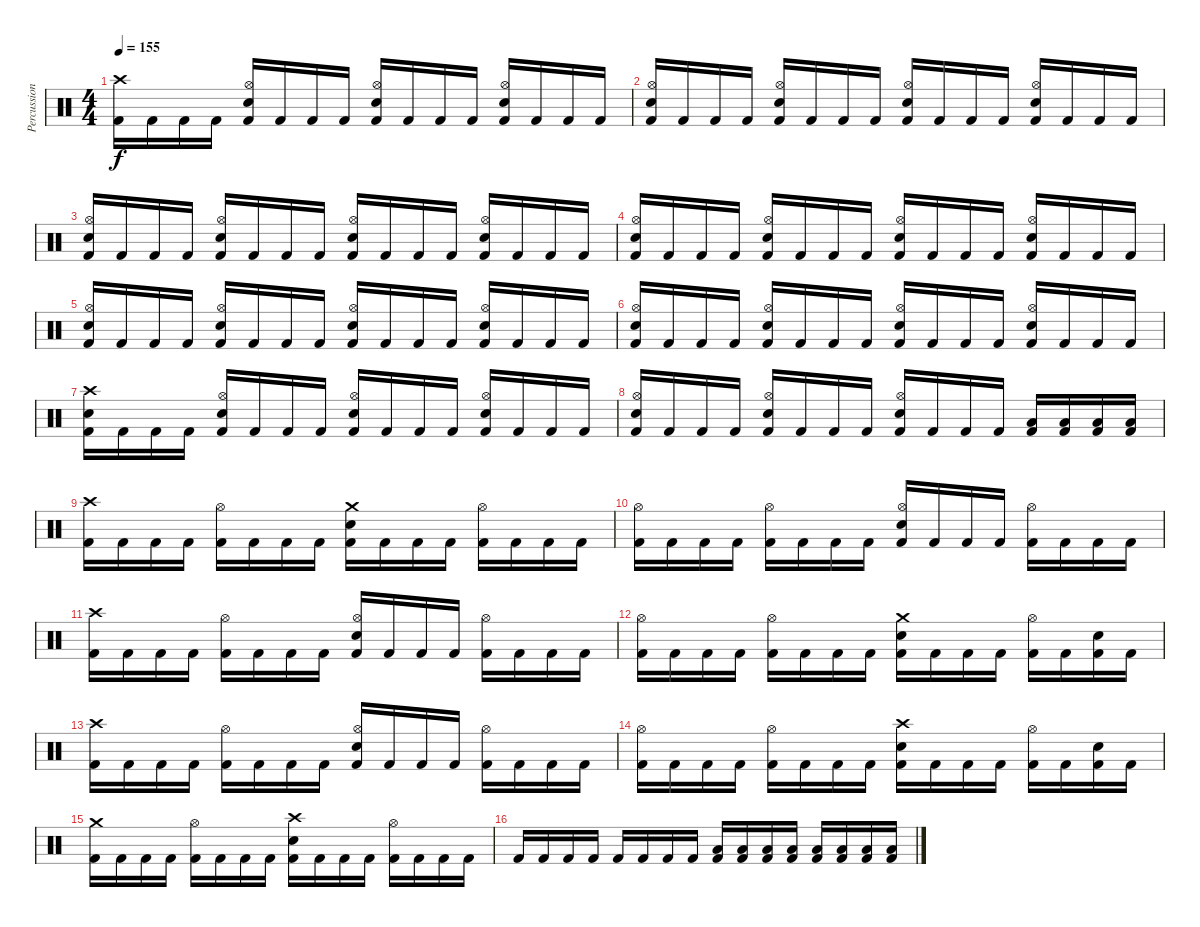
\track ("Percussion" "Percussion") {instrument percussion}
\staff {score}
\articulation defaults
\ts (4 4)
\tempo 155
\clef neutral
\ks c
("Crash high (hit)" "Kick (hit) 2").16{dy f} "Kick (hit) 2".16 "Kick (hit) 2".16 "Kick (hit) 2".16 ("Hi-Hat (open)" "Snare (hit) 2" "Kick (hit) 2").16 "Kick (hit) 2".16 "Kick (hit) 2".16 "Kick (hit) 2".16 ("Hi-Hat (open)" "Snare (hit) 2" "Kick (hit) 2").16 "Kick (hit) 2".16 "Kick (hit) 2".16 "Kick (hit) 2".16 ("Hi-Hat (open)" "Snare (hit) 2" "Kick (hit) 2").16 "Kick (hit) 2".16 "Kick (hit) 2".16 "Kick (hit) 2".16 |
("Hi-Hat (open)" "Snare (hit) 2" "Kick (hit) 2").16 "Kick (hit) 2".16 "Kick (hit) 2".16 "Kick (hit) 2".16 ("Hi-Hat (open)" "Snare (hit) 2" "Kick (hit) 2").16 "Kick (hit) 2".16 "Kick (hit) 2".16 "Kick (hit) 2".16 ("Hi-Hat (open)" "Snare (hit) 2" "Kick (hit) 2").16 "Kick (hit) 2".16 "Kick (hit) 2".16 "Kick (hit) 2".16 ("Hi-Hat (open)" "Snare (hit) 2" "Kick (hit) 2").16 "Kick (hit) 2".16 "Kick (hit) 2".16 "Kick (hit) 2".16 |
("Hi-Hat (open)" "Snare (hit) 2" "Kick (hit) 2").16 "Kick (hit) 2".16 "Kick (hit) 2".16 "Kick (hit) 2".16 ("Hi-Hat (open)" "Snare (hit) 2" "Kick (hit) 2").16 "Kick (hit) 2".16 "Kick (hit) 2".16 "Kick (hit) 2".16 ("Hi-Hat (open)" "Snare (hit) 2" "Kick (hit) 2").16 "Kick (hit) 2".16 "Kick (hit) 2".16 "Kick (hit) 2".16 ("Hi-Hat (open)" "Snare (hit) 2" "Kick (hit) 2").16 "Kick (hit) 2".16 "Kick (hit) 2".16 "Kick (hit) 2".16 |
("Hi-Hat (open)" "Snare (hit) 2" "Kick (hit) 2").16 "Kick (hit) 2".16 "Kick (hit) 2".16 "Kick (hit) 2".16 ("Hi-Hat (open)" "Snare (hit) 2" "Kick (hit) 2").16 "Kick (hit) 2".16 "Kick (hit) 2".16 "Kick (hit) 2".16 ("Hi-Hat (open)" "Snare (hit) 2" "Kick (hit) 2").16 "Kick (hit) 2".16 "Kick (hit) 2".16 "Kick (hit) 2".16 ("Hi-Hat (open)" "Snare (hit) 2" "Kick (hit) 2").16 "Kick (hit) 2".16 "Kick (hit) 2".16 "Kick (hit) 2".16 |
("Hi-Hat (open)" "Snare (hit) 2" "Kick (hit) 2").16 "Kick (hit) 2".16 "Kick (hit) 2".16 "Kick (hit) 2".16 ("Hi-Hat (open)" "Snare (hit) 2" "Kick (hit) 2").16 "Kick (hit) 2".16 "Kick (hit) 2".16 "Kick (hit) 2".16 ("Hi-Hat (open)" "Snare (hit) 2" "Kick (hit) 2").16 "Kick (hit) 2".16 "Kick (hit) 2".16 "Kick (hit) 2".16 ("Hi-Hat (open)" "Snare (hit) 2" "Kick (hit) 2").16 "Kick (hit) 2".16 "Kick (hit) 2".16 "Kick (hit) 2".16 |
("Hi-Hat (open)" "Snare (hit) 2" "Kick (hit) 2").16 "Kick (hit) 2".16 "Kick (hit) 2".16 "Kick (hit) 2".16 ("Hi-Hat (open)" "Snare (hit) 2" "Kick (hit) 2").16 "Kick (hit) 2".16 "Kick (hit) 2".16 "Kick (hit) 2".16 ("Hi-Hat (open)" "Snare (hit) 2" "Kick (hit) 2").16 "Kick (hit) 2".16 "Kick (hit) 2".16 "Kick (hit) 2".16 ("Hi-Hat (open)" "Snare (hit) 2" "Kick (hit) 2").16 "Kick (hit) 2".16 "Kick (hit) 2".16 "Kick (hit) 2".16 |
("Crash high (hit)" "Snare (hit) 2" "Kick (hit) 2").16 "Kick (hit) 2".16 "Kick (hit) 2".16 "Kick (hit) 2".16 ("Hi-Hat (open)" "Snare (hit) 2" "Kick (hit) 2").16 "Kick (hit) 2".16 "Kick (hit) 2".16 "Kick (hit) 2".16 ("Hi-Hat (open)" "Snare (hit) 2" "Kick (hit) 2").16 "Kick (hit) 2".16 "Kick (hit) 2".16 "Kick (hit) 2".16 ("Hi-Hat (open)" "Snare (hit) 2" "Kick (hit) 2").16 "Kick (hit) 2".16 "Kick (hit) 2".16 "Kick (hit) 2".16 |
("Hi-Hat (open)" "Snare (hit) 2" "Kick (hit) 2").16 "Kick (hit) 2".16 "Kick (hit) 2".16 "Kick (hit) 2".16 ("Hi-Hat (open)" "Snare (hit) 2" "Kick (hit) 2").16 "Kick (hit) 2".16 "Kick (hit) 2".16 "Kick (hit) 2".16 ("Hi-Hat (open)" "Snare (hit) 2" "Kick (hit) 2").16 "Kick (hit) 2".16 "Kick (hit) 2".16 "Kick (hit) 2".16 ("Low Floor Tom (hit)" "Kick (hit) 2").16 ("Low Floor Tom (hit)" "Kick (hit) 2").16 ("Low Floor Tom (hit)" "Kick (hit) 2").16 ("Low Floor Tom (hit)" "Kick (hit) 2").16 |
("Crash high (hit)" "Kick (hit) 2").16 "Kick (hit) 2".16 "Kick (hit) 2".16 "Kick (hit) 2".16 ("Hi-Hat (open)" "Kick (hit) 2").16 "Kick (hit) 2".16 "Kick (hit) 2".16 "Kick (hit) 2".16 ("Crash medium (hit)" "Snare (hit) 2" "Kick (hit) 2").16 "Kick (hit) 2".16 "Kick (hit) 2".16 "Kick (hit) 2".16 ("Hi-Hat (open)" "Kick (hit) 2").16 "Kick (hit) 2".16 "Kick (hit) 2".16 "Kick (hit) 2".16 |
("Hi-Hat (open)" "Kick (hit) 2").16 "Kick (hit) 2".16 "Kick (hit) 2".16 "Kick (hit) 2".16 ("Hi-Hat (open)" "Kick (hit) 2").16 "Kick (hit) 2".16 "Kick (hit) 2".16 "Kick (hit) 2".16 ("Hi-Hat (open)" "Snare (hit) 2" "Kick (hit) 2").16 "Kick (hit) 2".16 "Kick (hit) 2".16 "Kick (hit) 2".16 ("Hi-Hat (open)" "Kick (hit) 2").16 "Kick (hit) 2".16 "Kick (hit) 2".16 "Kick (hit) 2".16 |
("Crash high (hit)" "Kick (hit) 2").16 "Kick (hit) 2".16 "Kick (hit) 2".16 "Kick (hit) 2".16 ("Hi-Hat (open)" "Kick (hit) 2").16 "Kick (hit) 2".16 "Kick (hit) 2".16 "Kick (hit) 2".16 ("Hi-Hat (open)" "Snare (hit) 2" "Kick (hit) 2").16 "Kick (hit) 2".16 "Kick (hit) 2".16 "Kick (hit) 2".16 ("Hi-Hat (open)" "Kick (hit) 2").16 "Kick (hit) 2".16 "Kick (hit) 2".16 "Kick (hit) 2".16 |
("Hi-Hat (open)" "Kick (hit) 2").16 "Kick (hit) 2".16 "Kick (hit) 2".16 "Kick (hit) 2".16 ("Hi-Hat (open)" "Kick (hit) 2").16 "Kick (hit) 2".16 "Kick (hit) 2".16 "Kick (hit) 2".16 ("Crash medium (hit)" "Snare (hit) 2" "Kick (hit) 2").16 "Kick (hit) 2".16 "Kick (hit) 2".16 "Kick (hit) 2".16 ("Hi-Hat (open)" "Kick (hit) 2").16 "Kick (hit) 2".16 ("Snare (hit) 2" "Kick (hit) 2").16 "Kick (hit) 2".16 |
("Crash high (hit)" "Kick (hit) 2").16 "Kick (hit) 2".16 "Kick (hit) 2".16 "Kick (hit) 2".16 ("Hi-Hat (open)" "Kick (hit) 2").16 "Kick (hit) 2".16 "Kick (hit) 2".16 "Kick (hit) 2".16 ("Hi-Hat (open)" "Snare (hit) 2" "Kick (hit) 2").16 "Kick (hit) 2".16 "Kick (hit) 2".16 "Kick (hit) 2".16 ("Hi-Hat (open)" "Kick (hit) 2").16 "Kick (hit) 2".16 "Kick (hit) 2".16 "Kick (hit) 2".16 |
("Hi-Hat (open)" "Kick (hit) 2").16 "Kick (hit) 2".16 "Kick (hit) 2".16 "Kick (hit) 2".16 ("Hi-Hat (open)" "Kick (hit) 2").16 "Kick (hit) 2".16 "Kick (hit) 2".16 "Kick (hit) 2".16 ("Crash high (hit)" "Snare (hit) 2" "Kick (hit) 2").16 "Kick (hit) 2".16 "Kick (hit) 2".16 "Kick (hit) 2".16 ("Hi-Hat (open)" "Kick (hit) 2").16 "Kick (hit) 2".16 ("Snare (hit) 2" "Kick (hit) 2").16 "Kick (hit) 2".16 |
("Crash medium (hit)" "Kick (hit) 2").16 "Kick (hit) 2".16 "Kick (hit) 2".16 "Kick (hit) 2".16 ("Hi-Hat (open)" "Kick (hit) 2").16 "Kick (hit) 2".16 "Kick (hit) 2".16 "Kick (hit) 2".16 ("Crash high (hit)" "Snare (hit) 2" "Kick (hit) 2").16 "Kick (hit) 2".16 "Kick (hit) 2".16 "Kick (hit) 2".16 ("Hi-Hat (open)" "Kick (hit) 2").16 "Kick (hit) 2".16 "Kick (hit) 2".16 "Kick (hit) 2".16 |
"Kick (hit) 2".16 "Kick (hit) 2".16 "Kick (hit) 2".16 "Kick (hit) 2".16 "Kick (hit) 2".16 "Kick (hit) 2".16 "Kick (hit) 2".16 "Kick (hit) 2".16 ("Low Floor Tom (hit)" "Kick (hit) 2").16 ("Low Floor Tom (hit)" "Kick (hit) 2").16 ("Low Floor Tom (hit)" "Kick (hit) 2").16 ("Low Floor Tom (hit)" "Kick (hit) 2").16 ("Low Floor Tom (hit)" "Kick (hit) 2").16 ("Low Floor Tom (hit)" "Kick (hit) 2").16 ("Low Floor Tom (hit)" "Kick (hit) 2").16 ("Low Floor Tom (hit)" "Kick (hit) 2").16
